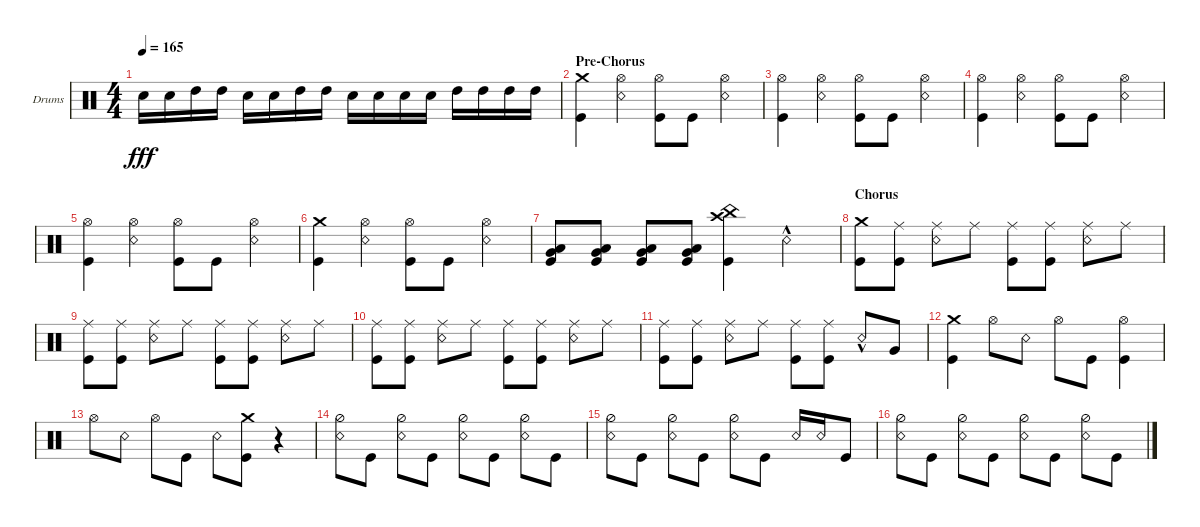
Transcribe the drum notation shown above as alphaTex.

\defaultSystemsLayout 4
\bracketExtendMode groupsimilarinstruments
\firstSystemTrackNameOrientation horizontal
\otherSystemsTrackNameOrientation horizontal
\track ("Drums" "Drums") {instrument percussion}
\staff {score}
\articulation defaults
\ts (4 4)
\tempo 165
\clef neutral
\ks c "Snare (hit) 2".16{dy fff} "Snare (hit) 2".16 "High Tom (hit)".16 "High Tom (hit)".16 "Snare (hit) 2".16 "Snare (hit) 2".16 "High Tom (hit)".16 "High Tom (hit)".16 "Snare (hit) 2".16 "Snare (hit) 2".16 "Snare (hit) 2".16 "Snare (hit) 2".16 "High Tom (hit)".16 "High Tom (hit)".16 "High Tom (hit)".16 "High Tom (hit)".16
|
\section ("" "Pre-Chorus")
("Kick (hit)" "Crash medium (hit)").4 ("Hi-Hat (open)" "Snare (rim shot)").4 ("Hi-Hat (open)" "Kick (hit)").8 "Kick (hit)".8 ("Hi-Hat (open)" "Snare (rim shot)").4 |
("Hi-Hat (open)" "Kick (hit)").4 ("Hi-Hat (open)" "Snare (rim shot)").4 ("Hi-Hat (open)" "Kick (hit)").8 "Kick (hit)".8 ("Hi-Hat (open)" "Snare (rim shot)").4 |
("Hi-Hat (open)" "Kick (hit)").4 ("Hi-Hat (open)" "Snare (rim shot)").4 ("Hi-Hat (open)" "Kick (hit)").8 "Kick (hit)".8 ("Hi-Hat (open)" "Snare (rim shot)").4 |
("Hi-Hat (open)" "Kick (hit)").4 ("Hi-Hat (open)" "Snare (rim shot)").4 ("Hi-Hat (open)" "Kick (hit)").8 "Kick (hit)".8 ("Hi-Hat (open)" "Snare (rim shot)").4 |
("Kick (hit)" "Crash medium (hit)").4 ("Hi-Hat (open)" "Snare (rim shot)").4 ("Hi-Hat (open)" "Kick (hit)").8 "Kick (hit)".8 ("Hi-Hat (open)" "Snare (rim shot)").4 |
("Kick (hit)" "Very Low Tom (hit)" "Low Tom (hit)").8 ("Kick (hit)" "Low Tom (hit)" "Very Low Tom (hit)").8 ("Kick (hit)" "Very Low Tom (hit)" "Low Tom (hit)").8 ("Kick (hit)" "Low Tom (hit)" "Very Low Tom (hit)").8 ("Kick (hit)" "Crash high (hit)" "China (hit)").4 "Snare (rim shot)"{hac}.4 |
\section ("" "Chorus")
("Crash medium (hit)" "Kick (hit)").8 ("Ride (middle)" "Kick (hit)").8 ("Ride (middle)" "Snare (rim shot)").8 "Ride (middle)".8 ("Ride (middle)" "Kick (hit)").8 ("Ride (middle)" "Kick (hit)").8 ("Ride (middle)" "Snare (rim shot)").8 "Ride (middle)".8 |
("Ride (middle)" "Kick (hit)").8 ("Ride (middle)" "Kick (hit)").8 ("Ride (middle)" "Snare (rim shot)").8 "Ride (middle)".8 ("Ride (middle)" "Kick (hit)").8 ("Ride (middle)" "Kick (hit)").8 ("Ride (middle)" "Snare (rim shot)").8 "Ride (middle)".8 |
("Ride (middle)" "Kick (hit)").8 ("Ride (middle)" "Kick (hit)").8 ("Ride (middle)" "Snare (rim shot)").8 "Ride (middle)".8 ("Ride (middle)" "Kick (hit)").8 ("Ride (middle)" "Kick (hit)").8 ("Ride (middle)" "Snare (rim shot)").8 "Ride (middle)".8 |
("Ride (middle)" "Kick (hit)").8 ("Ride (middle)" "Kick (hit)").8 ("Ride (middle)" "Snare (rim shot)").8 "Ride (middle)".8 ("Ride (middle)" "Kick (hit)").8 ("Ride (middle)" "Kick (hit)").8 "Snare (rim shot)"{hac}.8 "Very Low Tom (hit)".8 |
("Kick (hit)" "Crash medium (hit)").4 "Hi-Hat (open)".8 "Snare (rim shot)".8 "Hi-Hat (open)".8 "Kick (hit)".8 ("Kick (hit)" "Hi-Hat (open)").4 |
"Hi-Hat (open)".8 "Snare (rim shot)".8 "Hi-Hat (open)".8 "Kick (hit)".8 "Snare (rim shot)".8 ("Crash medium (hit)" "Kick (hit)").8 r.4 |
("Hi-Hat (half)" "Snare (rim shot)").8 "Kick (hit)".8 ("Hi-Hat (half)" "Snare (rim shot)").8 "Kick (hit)".8 ("Hi-Hat (half)" "Snare (rim shot)").8 "Kick (hit)".8 ("Hi-Hat (half)" "Snare (rim shot)").8 "Kick (hit)".8 |
("Hi-Hat (half)" "Snare (rim shot)").8 "Kick (hit)".8 ("Hi-Hat (half)" "Snare (rim shot)").8 "Kick (hit)".8 ("Hi-Hat (half)" "Snare (rim shot)").8 "Kick (hit)".8 "Snare (rim shot)".16 "Snare (rim shot)".16 "Kick (hit)".8 |
("Hi-Hat (half)" "Snare (rim shot)").8 "Kick (hit)".8 ("Hi-Hat (half)" "Snare (rim shot)").8 "Kick (hit)".8 ("Hi-Hat (half)" "Snare (rim shot)").8 "Kick (hit)".8 ("Hi-Hat (half)" "Snare (rim shot)").8 "Kick (hit)".8
